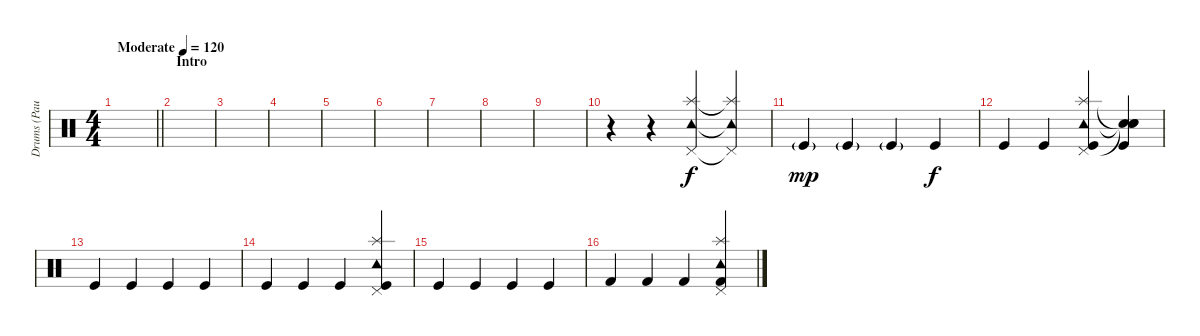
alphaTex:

\track ("Drums (Paul Thompson)" "Drums (Pau") {instrument percussion}
\staff {score}
\articulation defaults
\ts (4 4)
\tempo (120 "Moderate")
\clef neutral
\barLineRight lightlight
\ks c
|
\section ("" "Intro")
|
|
|
|
|
|
|
|
r.4 r.4 ("Tambourine (hit)" "Splash (hit)" "Pedal Hi-Hat (hit)").4 ("Tambourine (hit)"{t} "Splash (hit)"{t} "Pedal Hi-Hat (hit)"{t}).4 |
"Kick (hit)"{g}.4{dy mp} "Kick (hit)"{g}.4 "Kick (hit)"{g}.4 "Kick (hit)".4{dy f} |
"Kick (hit)".4 "Kick (hit)".4 ("Tambourine (hit)" "Splash (hit)" "Pedal Hi-Hat (hit)" "Kick (hit)").4 ("Snare (hit)"{t} "Snare (hit)"{t} "Snare (hit)"{t} "Kick (hit)").4 |
"Kick (hit)".4 "Kick (hit)".4 "Kick (hit)".4 "Kick (hit)".4 |
"Kick (hit)".4 "Kick (hit)".4 "Kick (hit)".4 ("Tambourine (hit)" "Splash (hit)" "Pedal Hi-Hat (hit)" "Kick (hit)").4 |
"Kick (hit)".4 "Kick (hit)".4 "Kick (hit)".4 "Kick (hit)".4 |
"Kick (hit) 2".4 "Kick (hit) 2".4 "Kick (hit) 2".4 ("Tambourine (hit)" "Splash (hit)" "Pedal Hi-Hat (hit)" "Kick (hit) 2").4
